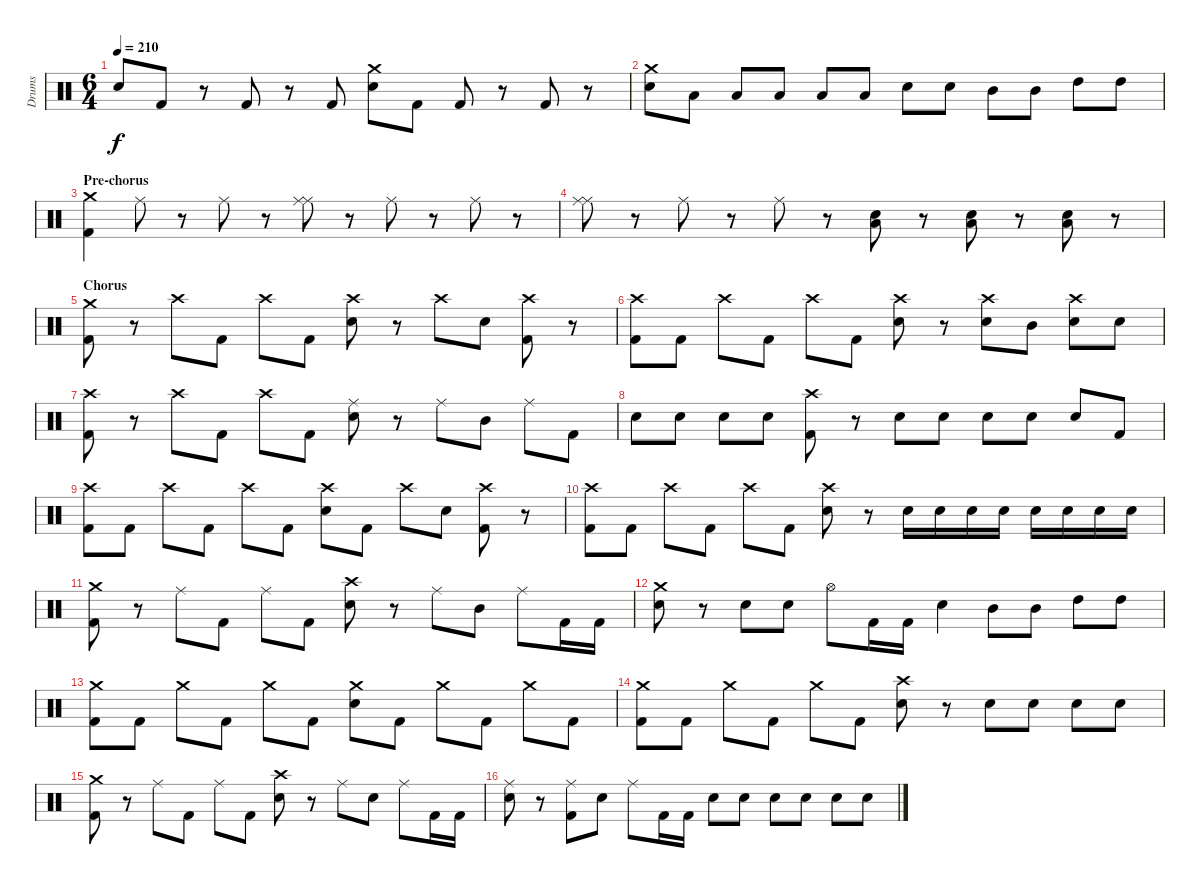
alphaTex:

\track ("Drums" "Drums") {instrument percussion}
\staff {score}
\articulation defaults
\ts (6 4)
\tempo 210
\clef neutral
\ks c "Electric Snare (hit)".8{dy f} "Kick (hit) 2".8
r.8 "Kick (hit) 2".8 r.8 "Kick (hit) 2".8 ("Crash medium (hit)" "Electric Snare (hit)").8 "Kick (hit) 2".8 "Kick (hit) 2".8 r.8 "Kick (hit) 2".8 r.8 |
("Crash medium (hit)" "Electric Snare (hit)").8 "Low Floor Tom (hit)".8 "Low Floor Tom (hit)".8 "Low Floor Tom (hit)".8 "Low Floor Tom (hit)".8 "Low Floor Tom (hit)".8 "Electric Snare (hit)".8 "Electric Snare (hit)".8 "Mid Tom (hit)".8 "Mid Tom (hit)".8 "High Tom (hit)".8 "High Tom (hit)".8 |
\section ("" "Pre-chorus")
("Crash medium (hit)" "Kick (hit) 2").4 "Ride (middle)".8 r.8 "Ride (middle)".8 r.8 ("Ride (middle)" "Ride (middle)").8 r.8 "Ride (middle)".8 r.8 "Ride (middle)".8 r.8 |
("Ride (middle)" "Ride (middle)").8 r.8 "Ride (middle)".8 r.8 "Ride (middle)".8 r.8 ("Electric Snare (hit)" "Low Floor Tom (hit)").8 r.8 ("Electric Snare (hit)" "Low Floor Tom (hit)").8 r.8 ("Electric Snare (hit)" "Low Floor Tom (hit)").8 r.8 |
\section ("" "Chorus")
("Crash medium (hit)" "Kick (hit) 2").8 r.8 "Crash high (hit)".8 "Kick (hit) 2".8 "Crash high (hit)".8 "Kick (hit) 2".8 ("Crash high (hit)" "Electric Snare (hit)").8 r.8 "Crash high (hit)".8 "Electric Snare (hit)".8 ("Crash high (hit)" "Kick (hit) 2").8 r.8 |
("Crash high (hit)" "Kick (hit) 2").8 "Kick (hit) 2".8 "Crash high (hit)".8 "Kick (hit) 2".8 "Crash high (hit)".8 "Kick (hit) 2".8 ("Crash high (hit)" "Electric Snare (hit)").8 r.8 ("Crash high (hit)" "Electric Snare (hit)").8 "Mid Tom (hit)".8 ("Crash high (hit)" "Electric Snare (hit)").8 "Electric Snare (hit)".8 |
("Crash high (hit)" "Kick (hit) 2").8 r.8 "Crash high (hit)".8 "Kick (hit) 2".8 "Crash high (hit)".8 "Kick (hit) 2".8 ("Ride (middle)" "Electric Snare (hit)").8 r.8 "Ride (middle)".8 "Mid Tom (hit)".8 "Ride (middle)".8 "Kick (hit) 2".8 |
"Electric Snare (hit)".8 "Electric Snare (hit)".8 "Electric Snare (hit)".8 "Electric Snare (hit)".8 ("Crash high (hit)" "Kick (hit) 2").8 r.8 "Electric Snare (hit)".8 "Electric Snare (hit)".8 "Electric Snare (hit)".8 "Electric Snare (hit)".8 "Electric Snare (hit)".8 "Kick (hit) 2".8 |
("Crash high (hit)" "Kick (hit) 2").8 "Kick (hit) 2".8 "Crash high (hit)".8 "Kick (hit) 2".8 "Crash high (hit)".8 "Kick (hit) 2".8 ("Crash high (hit)" "Electric Snare (hit)").8 "Kick (hit) 2".8 "Crash high (hit)".8 "Electric Snare (hit)".8 ("Crash high (hit)" "Kick (hit) 2").8 r.8 |
("Crash high (hit)" "Kick (hit) 2").8 "Kick (hit) 2".8 "Crash high (hit)".8 "Kick (hit) 2".8 "Crash high (hit)".8 "Kick (hit) 2".8 ("Crash high (hit)" "Electric Snare (hit)").8 r.8 "Electric Snare (hit)".16 "Electric Snare (hit)".16 "Electric Snare (hit)".16 "Electric Snare (hit)".16 "Electric Snare (hit)".16 "Electric Snare (hit)".16 "Electric Snare (hit)".16 "Electric Snare (hit)".16 |
("Crash medium (hit)" "Kick (hit) 2").8 r.8 "Ride (middle)".8 "Kick (hit) 2".8 "Ride (middle)".8 "Kick (hit) 2".8 ("Crash high (hit)" "Electric Snare (hit)").8 r.8 "Ride (middle)".8 "Mid Tom (hit)".8 "Ride (middle)".8 "Kick (hit) 2".16 "Kick (hit) 2".16 |
("Crash medium (hit)" "Electric Snare (hit)").8 r.8 "Electric Snare (hit)".8 "Electric Snare (hit)".8 "Hi-Hat (open)".8 "Kick (hit) 2".16 "Kick (hit) 2".16 "Electric Snare (hit)".4 "Mid Tom (hit)".8 "Mid Tom (hit)".8 "High Tom (hit)".8 "High Tom (hit)".8 |
("Crash medium (hit)" "Kick (hit) 2").8 "Kick (hit) 2".8 "Crash medium (hit)".8 "Kick (hit) 2".8 "Crash medium (hit)".8 "Kick (hit) 2".8 ("Crash medium (hit)" "Electric Snare (hit)").8 "Kick (hit) 2".8 "Crash medium (hit)".8 "Kick (hit) 2".8 "Crash medium (hit)".8 "Kick (hit) 2".8 |
("Crash medium (hit)" "Kick (hit) 2").8 "Kick (hit) 2".8 "Crash medium (hit)".8 "Kick (hit) 2".8 "Crash medium (hit)".8 "Kick (hit) 2".8 ("Crash high (hit)" "Electric Snare (hit)").8 r.8 "Electric Snare (hit)".8 "Electric Snare (hit)".8 "Electric Snare (hit)".8 "Electric Snare (hit)".8 |
("Crash medium (hit)" "Kick (hit) 2").8 r.8 "Ride (middle)".8 "Kick (hit) 2".8 "Ride (middle)".8 "Kick (hit) 2".8 ("Crash high (hit)" "Electric Snare (hit)").8 r.8 "Ride (middle)".8 "Electric Snare (hit)".8 "Ride (middle)".8 "Kick (hit) 2".16 "Kick (hit) 2".16 |
("Ride (middle)" "Electric Snare (hit)").8 r.8 ("Ride (middle)" "Kick (hit) 2").8 "Electric Snare (hit)".8 "Ride (middle)".8 "Kick (hit) 2".16 "Kick (hit) 2".16 "Electric Snare (hit)".8 "Electric Snare (hit)".8 "Electric Snare (hit)".8 "Electric Snare (hit)".8 "Electric Snare (hit)".8 "Electric Snare (hit)".8
